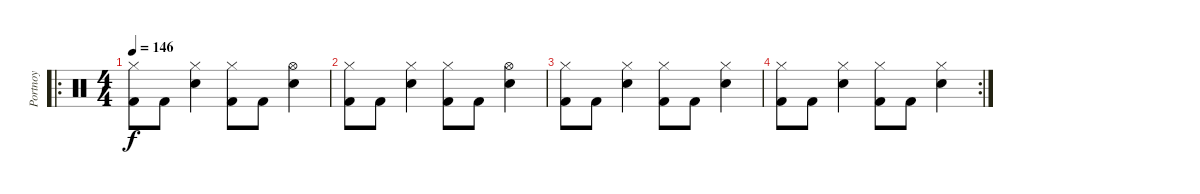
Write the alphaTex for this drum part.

\track ("Portnoy" "Portnoy") {instrument percussion}
\staff {score}
\articulation defaults
\ro
\ts (4 4)
\tempo 146
\clef neutral
\ks c
("Hi-Hat (closed)" "Kick (hit) 2").8{dy f} "Kick (hit) 2".8 ("Hi-Hat (closed)" "Electric Snare (hit)").4 ("Hi-Hat (closed)" "Kick (hit) 2").8 "Kick (hit) 2".8 ("Hi-Hat (open)" "Electric Snare (hit)").4 |
("Hi-Hat (closed)" "Kick (hit) 2").8 "Kick (hit) 2".8 ("Hi-Hat (closed)" "Electric Snare (hit)").4 ("Hi-Hat (closed)" "Kick (hit) 2").8 "Kick (hit) 2".8 ("Hi-Hat (open)" "Electric Snare (hit)").4 |
("Hi-Hat (closed)" "Kick (hit) 2").8 "Kick (hit) 2".8 ("Hi-Hat (closed)" "Electric Snare (hit)").4 ("Hi-Hat (closed)" "Kick (hit) 2").8 "Kick (hit) 2".8 ("Hi-Hat (closed)" "Electric Snare (hit)").4 |
\rc 2
("Hi-Hat (closed)" "Kick (hit) 2").8 "Kick (hit) 2".8 ("Hi-Hat (closed)" "Electric Snare (hit)").4 ("Hi-Hat (closed)" "Kick (hit) 2").8 "Kick (hit) 2".8 ("Hi-Hat (closed)" "Electric Snare (hit)").4
